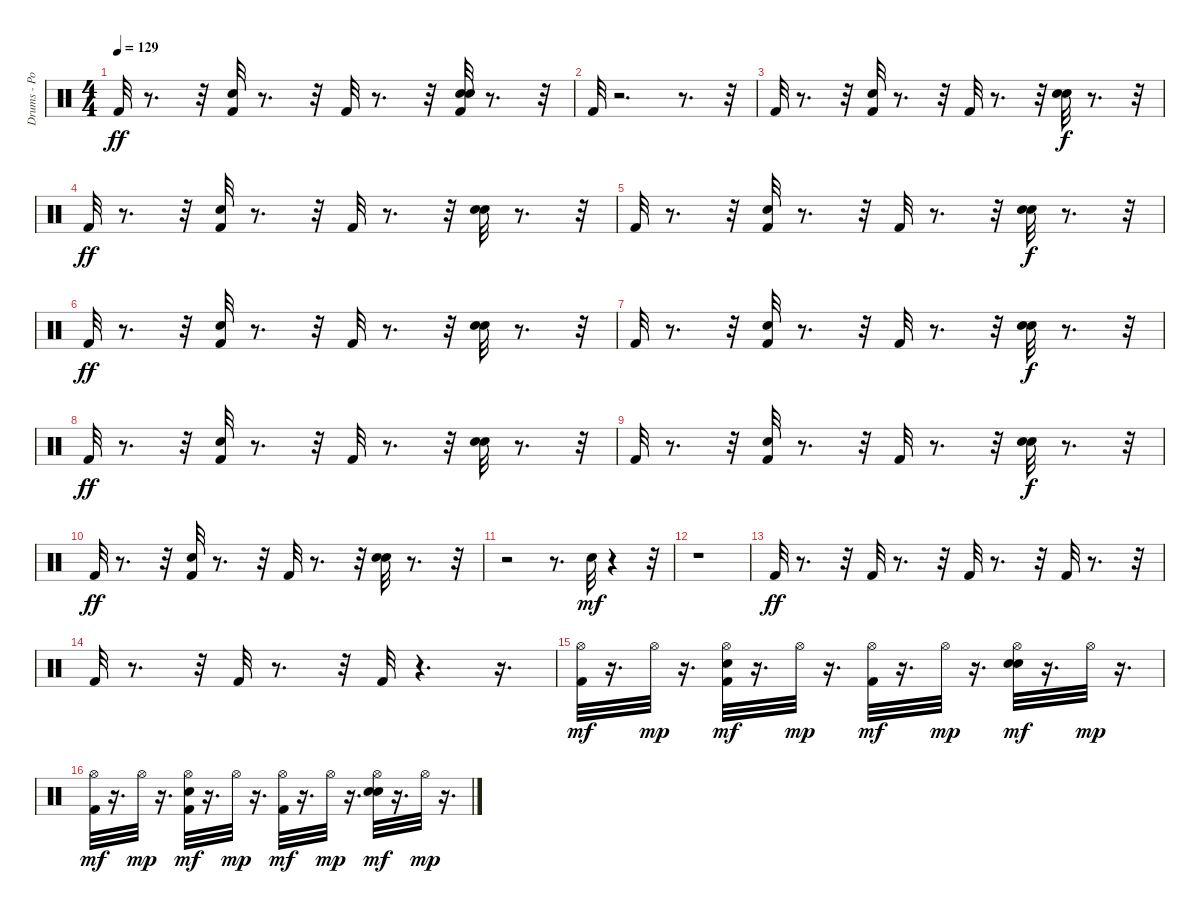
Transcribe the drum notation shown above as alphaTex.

\track ("Drums - Po" "Drums - Po") {instrument percussion}
\staff {score}
\articulation defaults
\ts (4 4)
\tempo 129
\clef neutral
\ks c "Kick (hit) 2".32{dy ff}
r.8{d} r.32 ("Kick (hit) 2" "Snare (hit) 2").32 r.8{d} r.32 "Kick (hit) 2".32 r.8{d} r.32 ("Kick (hit) 2" "Snare (hit) 2" "Hand Clap (hit)").32 r.8{d} r.32 |
"Kick (hit) 2".32 r.2{d} r.8{d} r.32 |
"Kick (hit) 2".32 r.8{d} r.32 ("Kick (hit) 2" "Snare (hit) 2").32 r.8{d} r.32 "Kick (hit) 2".32 r.8{d} r.32 ("Snare (hit) 2" "Hand Clap (hit)").32{dy f} r.8{d} r.32 |
"Kick (hit) 2".32{dy ff} r.8{d} r.32 ("Kick (hit) 2" "Snare (hit) 2").32 r.8{d} r.32 "Kick (hit) 2".32 r.8{d} r.32 ("Snare (hit) 2" "Hand Clap (hit)").32 r.8{d} r.32 |
"Kick (hit) 2".32 r.8{d} r.32 ("Kick (hit) 2" "Snare (hit) 2").32 r.8{d} r.32 "Kick (hit) 2".32 r.8{d} r.32 ("Snare (hit) 2" "Hand Clap (hit)").32{dy f} r.8{d} r.32 |
"Kick (hit) 2".32{dy ff} r.8{d} r.32 ("Kick (hit) 2" "Snare (hit) 2").32 r.8{d} r.32 "Kick (hit) 2".32 r.8{d} r.32 ("Snare (hit) 2" "Hand Clap (hit)").32 r.8{d} r.32 |
"Kick (hit) 2".32 r.8{d} r.32 ("Kick (hit) 2" "Snare (hit) 2").32 r.8{d} r.32 "Kick (hit) 2".32 r.8{d} r.32 ("Snare (hit) 2" "Hand Clap (hit)").32{dy f} r.8{d} r.32 |
"Kick (hit) 2".32{dy ff} r.8{d} r.32 ("Kick (hit) 2" "Snare (hit) 2").32 r.8{d} r.32 "Kick (hit) 2".32 r.8{d} r.32 ("Snare (hit) 2" "Hand Clap (hit)").32 r.8{d} r.32 |
"Kick (hit) 2".32 r.8{d} r.32 ("Kick (hit) 2" "Snare (hit) 2").32 r.8{d} r.32 "Kick (hit) 2".32 r.8{d} r.32 ("Snare (hit) 2" "Hand Clap (hit)").32{dy f} r.8{d} r.32 |
"Kick (hit) 2".32{dy ff} r.8{d} r.32 ("Kick (hit) 2" "Snare (hit) 2").32 r.8{d} r.32 "Kick (hit) 2".32 r.8{d} r.32 ("Snare (hit) 2" "Hand Clap (hit)").32 r.8{d} r.32 |
r.2 r.8{d} "Hand Clap (hit)".32{dy mf} r.4 r.32 |
r.1 |
"Kick (hit) 2".32{dy ff} r.8{d} r.32 "Kick (hit) 2".32 r.8{d} r.32 "Kick (hit) 2".32 r.8{d} r.32 "Kick (hit) 2".32 r.8{d} r.32 |
"Kick (hit) 2".32 r.8{d} r.32 "Kick (hit) 2".32 r.8{d} r.32 "Kick (hit) 2".32 r.4{d} r.16{d} |
("Kick (hit) 2" "Hi-Hat (open)").32{dy mf} r.16{d} "Hi-Hat (open)".32{dy mp} r.16{d} ("Kick (hit) 2" "Snare (hit) 2" "Hi-Hat (open)").32{dy mf} r.16{d} "Hi-Hat (open)".32{dy mp} r.16{d} ("Kick (hit) 2" "Hi-Hat (open)").32{dy mf} r.16{d} "Hi-Hat (open)".32{dy mp} r.16{d} ("Snare (hit) 2" "Hand Clap (hit)" "Hi-Hat (open)").32{dy mf} r.16{d} "Hi-Hat (open)".32{dy mp} r.16{d} |
("Kick (hit) 2" "Hi-Hat (open)").32{dy mf} r.16{d} "Hi-Hat (open)".32{dy mp} r.16{d} ("Kick (hit) 2" "Snare (hit) 2" "Hi-Hat (open)").32{dy mf} r.16{d} "Hi-Hat (open)".32{dy mp} r.16{d} ("Kick (hit) 2" "Hi-Hat (open)").32{dy mf} r.16{d} "Hi-Hat (open)".32{dy mp} r.16{d} ("Snare (hit) 2" "Hand Clap (hit)" "Hi-Hat (open)").32{dy mf} r.16{d} "Hi-Hat (open)".32{dy mp} r.16{d}
